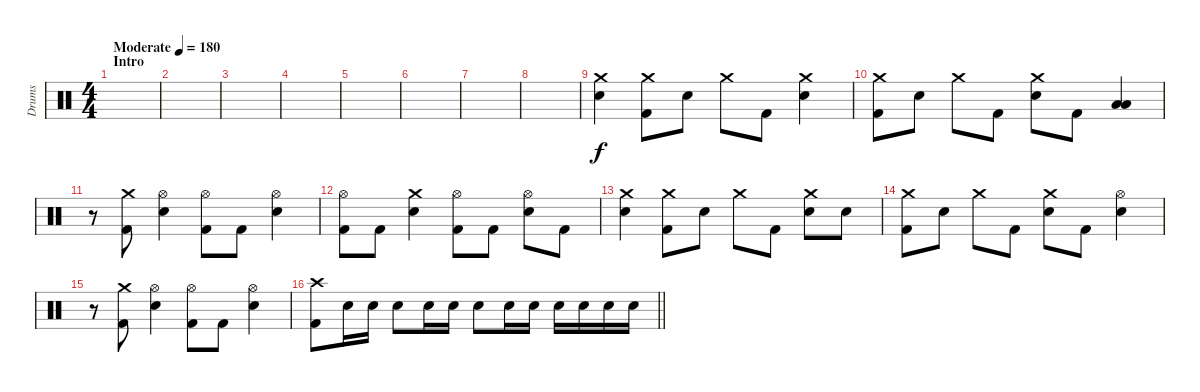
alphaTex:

\track ("Drums" "Drums") {instrument percussion}
\staff {score}
\articulation defaults
\ts (4 4)
\section ("" "Intro")
\tempo (180 "Moderate")
\clef neutral
\ks c
|
|
|
|
|
|
|
|
("Crash medium (hit)" "Electric Snare (hit)").4 ("Crash medium (hit)" "Kick (hit) 2").8 "Electric Snare (hit)".8 "Crash medium (hit)".8 "Kick (hit) 2".8 ("Crash medium (hit)" "Electric Snare (hit)").4 |
("Crash medium (hit)" "Kick (hit) 2").8 "Electric Snare (hit)".8 "Crash medium (hit)".8 "Kick (hit) 2".8 ("Crash medium (hit)" "Electric Snare (hit)").8 "Kick (hit) 2".8 ("Low Floor Tom (hit)" "Low Tom (hit)").4 |
r.8 ("Crash medium (hit)" "Kick (hit) 2").8 ("Hi-Hat (open)" "Electric Snare (hit)").4 ("Hi-Hat (open)" "Kick (hit) 2").8 "Kick (hit) 2".8 ("Hi-Hat (open)" "Electric Snare (hit)").4 |
("Hi-Hat (open)" "Kick (hit) 2").8 "Kick (hit) 2".8 ("Crash medium (hit)" "Electric Snare (hit)").4 ("Hi-Hat (open)" "Kick (hit) 2").8 "Kick (hit) 2".8 ("Hi-Hat (open)" "Electric Snare (hit)").8 "Kick (hit) 2".8 |
("Crash medium (hit)" "Electric Snare (hit)").4 ("Crash medium (hit)" "Kick (hit) 2").8 "Electric Snare (hit)".8 "Crash medium (hit)".8 "Kick (hit) 2".8 ("Crash medium (hit)" "Electric Snare (hit)").8 "Electric Snare (hit)".8 |
("Crash medium (hit)" "Kick (hit) 2").8 "Electric Snare (hit)".8 "Crash medium (hit)".8 "Kick (hit) 2".8 ("Crash medium (hit)" "Electric Snare (hit)").8 "Kick (hit) 2".8 ("Hi-Hat (open)" "Electric Snare (hit)").4 |
r.8 ("Crash medium (hit)" "Kick (hit) 2").8 ("Hi-Hat (open)" "Electric Snare (hit)").4 ("Hi-Hat (open)" "Kick (hit) 2").8 "Kick (hit) 2".8 ("Hi-Hat (open)" "Electric Snare (hit)").4 |
\barLineRight lightlight
("Crash high (hit)" "Kick (hit) 2").8 "Electric Snare (hit)".16 "Electric Snare (hit)".16 "Electric Snare (hit)".8 "Electric Snare (hit)".16 "Electric Snare (hit)".16 "Electric Snare (hit)".8 "Electric Snare (hit)".16 "Electric Snare (hit)".16 "Electric Snare (hit)".16 "Electric Snare (hit)".16 "Electric Snare (hit)".16 "Electric Snare (hit)".16
